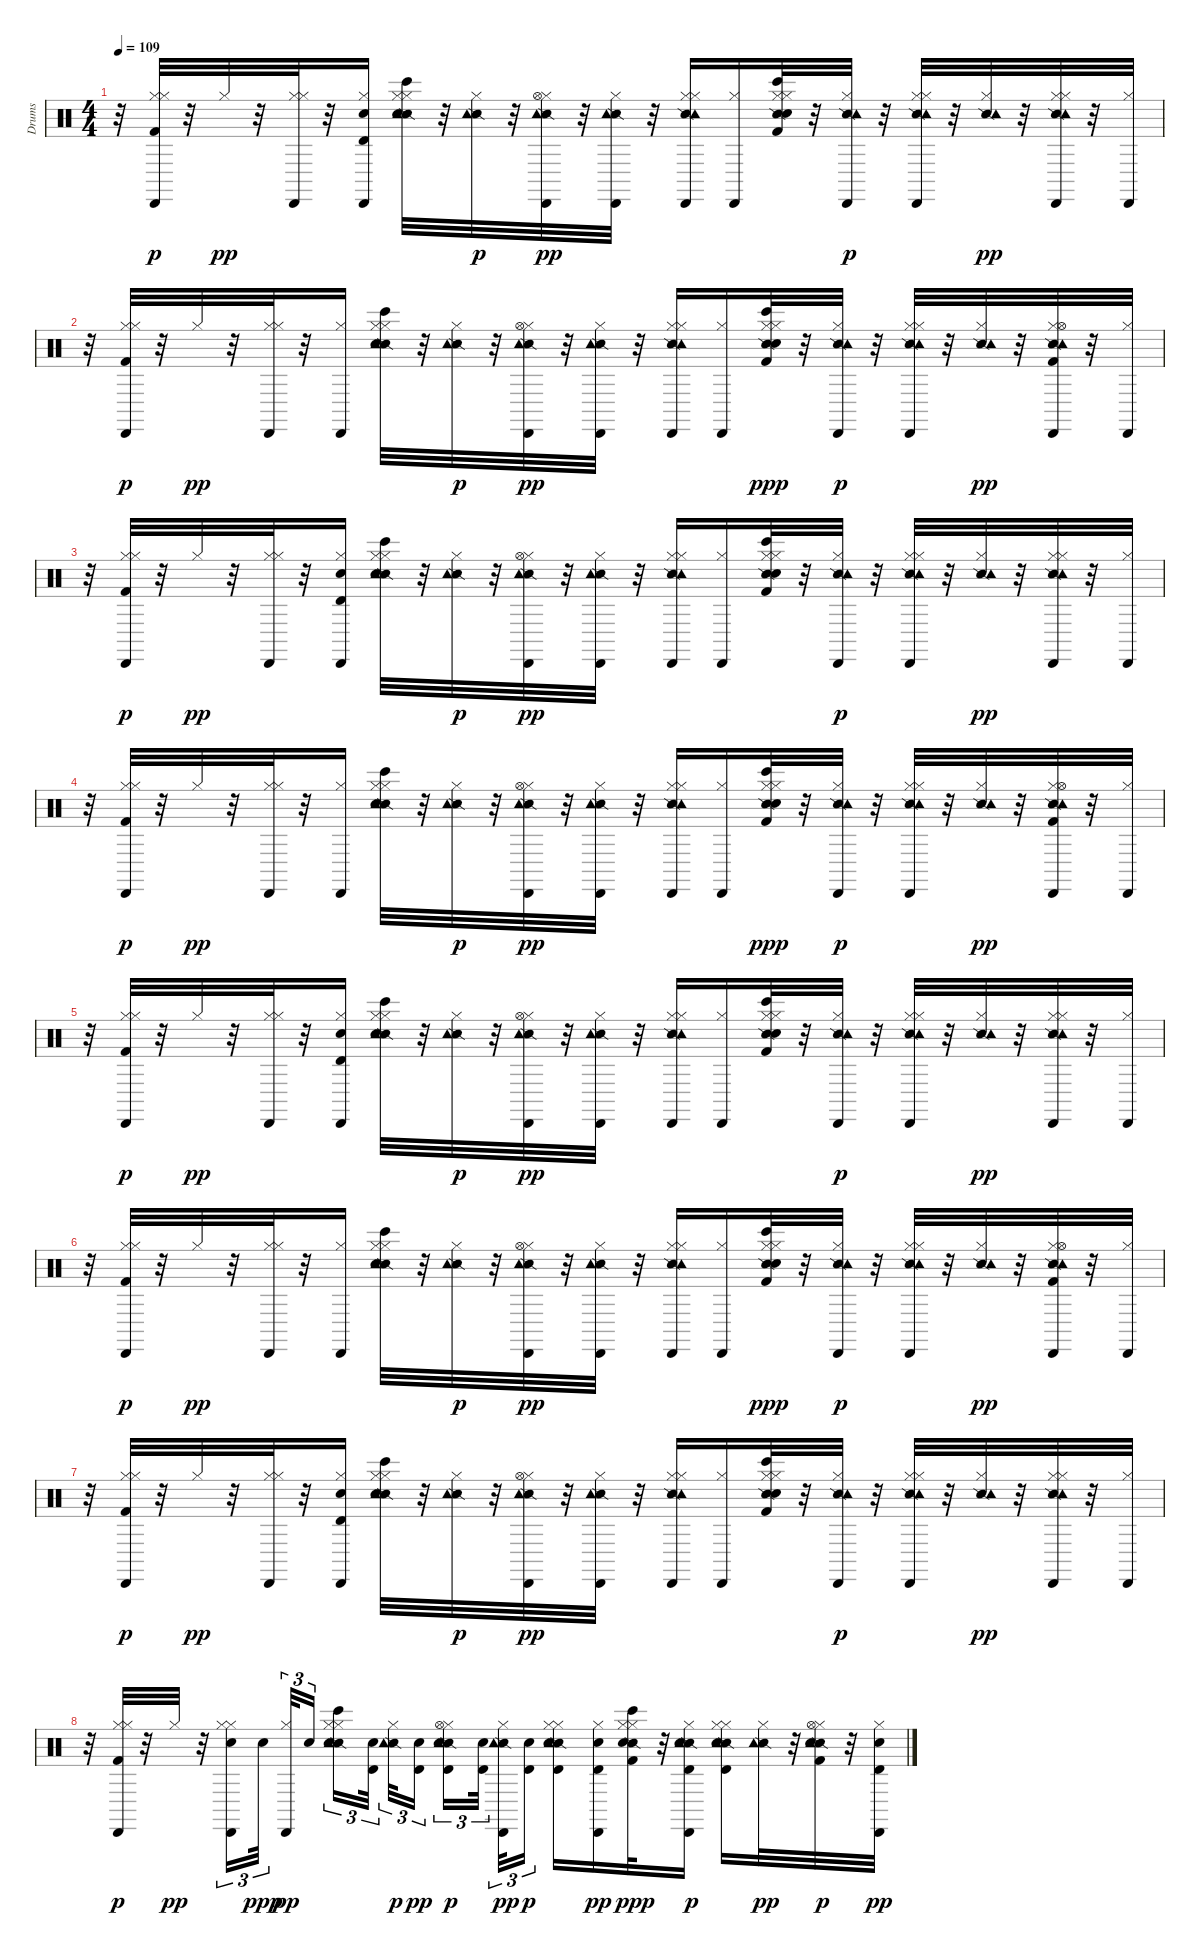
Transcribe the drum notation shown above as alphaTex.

\track ("Drums" "Drums") {instrument percussion}
\staff {score}
\articulation defaults
\ts (4 4)
\tempo 109
\clef neutral
\ks c
r.32{dy pp} ("Kick (hit) 2" "Hi-Hat (closed)" "Hi-Hat (closed)" "Cabasa (hit)").32{dy p} r.32 "Hi-Hat (closed)".32{dy pp} r.32 ("Hi-Hat (closed)" "Hi-Hat (closed)" "Cabasa (hit)").32 r.32 ("Hi-Hat (closed)" "Electric Snare (hit)" "Timbale high (hit)" "Cabasa (hit)").16 ("Hi-Hat (closed)" "Bongo High (hit)" "Snare (side stick) 2" "Electric Snare (hit)" "Hi-Hat (closed)" "Tambourine (hit)").32 r.32 ("Hi-Hat (closed)" "Snare (side stick) 2" "Tambourine (hit)").32{dy p} r.32 ("Hi-Hat (closed)" "Snare (side stick) 2" "Hi-Hat (open)" "Tambourine (hit)" "Cabasa (hit)").32{dy pp} r.32 ("Hi-Hat (closed)" "Snare (side stick) 2" "Tambourine (hit)" "Cabasa (hit)").32 r.32 ("Hi-Hat (closed)" "Snare (side stick) 2" "Hi-Hat (closed)" "Tambourine (hit)" "Cabasa (hit)").16 ("Hi-Hat (closed)" "Cabasa (hit)").16 ("Kick (hit) 2" "Hi-Hat (closed)" "Bongo High (hit)" "Snare (side stick) 2" "Electric Snare (hit)" "Hi-Hat (closed)").32 r.32 ("Hi-Hat (closed)" "Snare (side stick) 2" "Tambourine (hit)" "Cabasa (hit)").32{dy p} r.32 ("Hi-Hat (closed)" "Snare (side stick) 2" "Hi-Hat (closed)" "Tambourine (hit)" "Cabasa (hit)").32 r.32 ("Hi-Hat (closed)" "Snare (side stick) 2" "Tambourine (hit)").32{dy pp} r.32 ("Hi-Hat (closed)" "Snare (side stick) 2" "Hi-Hat (closed)" "Tambourine (hit)" "Cabasa (hit)").32 r.32 ("Hi-Hat (closed)" "Cabasa (hit)").32 |
r.32 ("Kick (hit) 2" "Hi-Hat (closed)" "Hi-Hat (closed)" "Cabasa (hit)").32{dy p} r.32 "Hi-Hat (closed)".32{dy pp} r.32 ("Hi-Hat (closed)" "Hi-Hat (closed)" "Cabasa (hit)").32 r.32 ("Hi-Hat (closed)" "Cabasa (hit)").16 ("Hi-Hat (closed)" "Bongo High (hit)" "Snare (side stick) 2" "Electric Snare (hit)" "Hi-Hat (closed)" "Tambourine (hit)").32 r.32 ("Hi-Hat (closed)" "Snare (side stick) 2" "Tambourine (hit)").32{dy p} r.32 ("Hi-Hat (closed)" "Snare (side stick) 2" "Hi-Hat (open)" "Tambourine (hit)" "Cabasa (hit)").32{dy pp} r.32 ("Hi-Hat (closed)" "Snare (side stick) 2" "Tambourine (hit)" "Cabasa (hit)").32 r.32 ("Hi-Hat (closed)" "Snare (side stick) 2" "Hi-Hat (closed)" "Tambourine (hit)" "Cabasa (hit)").16 ("Hi-Hat (closed)" "Cabasa (hit)").16 ("Kick (hit) 2" "Hi-Hat (closed)" "Bongo High (hit)" "Snare (side stick) 2" "Electric Snare (hit)" "Hi-Hat (closed)").32{dy ppp} r.32 ("Hi-Hat (closed)" "Snare (side stick) 2" "Tambourine (hit)" "Cabasa (hit)").32{dy p} r.32 ("Hi-Hat (closed)" "Snare (side stick) 2" "Hi-Hat (closed)" "Tambourine (hit)" "Cabasa (hit)").32 r.32 ("Hi-Hat (closed)" "Snare (side stick) 2" "Tambourine (hit)").32{dy pp} r.32 ("Kick (hit) 2" "Hi-Hat (closed)" "Snare (side stick) 2" "Hi-Hat (open)" "Tambourine (hit)" "Cabasa (hit)").32 r.32 ("Hi-Hat (closed)" "Cabasa (hit)").32 |
r.32 ("Kick (hit) 2" "Hi-Hat (closed)" "Hi-Hat (closed)" "Cabasa (hit)").32{dy p} r.32 "Hi-Hat (closed)".32{dy pp} r.32 ("Hi-Hat (closed)" "Hi-Hat (closed)" "Cabasa (hit)").32 r.32 ("Hi-Hat (closed)" "Electric Snare (hit)" "Timbale high (hit)" "Cabasa (hit)").16 ("Hi-Hat (closed)" "Bongo High (hit)" "Snare (side stick) 2" "Electric Snare (hit)" "Hi-Hat (closed)" "Tambourine (hit)").32 r.32 ("Hi-Hat (closed)" "Snare (side stick) 2" "Tambourine (hit)").32{dy p} r.32 ("Hi-Hat (closed)" "Snare (side stick) 2" "Hi-Hat (open)" "Tambourine (hit)" "Cabasa (hit)").32{dy pp} r.32 ("Hi-Hat (closed)" "Snare (side stick) 2" "Tambourine (hit)" "Cabasa (hit)").32 r.32 ("Hi-Hat (closed)" "Snare (side stick) 2" "Hi-Hat (closed)" "Tambourine (hit)" "Cabasa (hit)").16 ("Hi-Hat (closed)" "Cabasa (hit)").16 ("Kick (hit) 2" "Hi-Hat (closed)" "Bongo High (hit)" "Snare (side stick) 2" "Electric Snare (hit)" "Hi-Hat (closed)").32 r.32 ("Hi-Hat (closed)" "Snare (side stick) 2" "Tambourine (hit)" "Cabasa (hit)").32{dy p} r.32 ("Hi-Hat (closed)" "Snare (side stick) 2" "Hi-Hat (closed)" "Tambourine (hit)" "Cabasa (hit)").32 r.32 ("Hi-Hat (closed)" "Snare (side stick) 2" "Tambourine (hit)").32{dy pp} r.32 ("Hi-Hat (closed)" "Snare (side stick) 2" "Hi-Hat (closed)" "Tambourine (hit)" "Cabasa (hit)").32 r.32 ("Hi-Hat (closed)" "Cabasa (hit)").32 |
r.32 ("Kick (hit) 2" "Hi-Hat (closed)" "Hi-Hat (closed)" "Cabasa (hit)").32{dy p} r.32 "Hi-Hat (closed)".32{dy pp} r.32 ("Hi-Hat (closed)" "Hi-Hat (closed)" "Cabasa (hit)").32 r.32 ("Hi-Hat (closed)" "Cabasa (hit)").16 ("Hi-Hat (closed)" "Bongo High (hit)" "Snare (side stick) 2" "Electric Snare (hit)" "Hi-Hat (closed)" "Tambourine (hit)").32 r.32 ("Hi-Hat (closed)" "Snare (side stick) 2" "Tambourine (hit)").32{dy p} r.32 ("Hi-Hat (closed)" "Snare (side stick) 2" "Hi-Hat (open)" "Tambourine (hit)" "Cabasa (hit)").32{dy pp} r.32 ("Hi-Hat (closed)" "Snare (side stick) 2" "Tambourine (hit)" "Cabasa (hit)").32 r.32 ("Hi-Hat (closed)" "Snare (side stick) 2" "Hi-Hat (closed)" "Tambourine (hit)" "Cabasa (hit)").16 ("Hi-Hat (closed)" "Cabasa (hit)").16 ("Kick (hit) 2" "Hi-Hat (closed)" "Bongo High (hit)" "Snare (side stick) 2" "Electric Snare (hit)" "Hi-Hat (closed)").32{dy ppp} r.32 ("Hi-Hat (closed)" "Snare (side stick) 2" "Tambourine (hit)" "Cabasa (hit)").32{dy p} r.32 ("Hi-Hat (closed)" "Snare (side stick) 2" "Hi-Hat (closed)" "Tambourine (hit)" "Cabasa (hit)").32 r.32 ("Hi-Hat (closed)" "Snare (side stick) 2" "Tambourine (hit)").32{dy pp} r.32 ("Kick (hit) 2" "Hi-Hat (closed)" "Snare (side stick) 2" "Hi-Hat (open)" "Tambourine (hit)" "Cabasa (hit)").32 r.32 ("Hi-Hat (closed)" "Cabasa (hit)").32 |
r.32 ("Kick (hit) 2" "Hi-Hat (closed)" "Hi-Hat (closed)" "Cabasa (hit)").32{dy p} r.32 "Hi-Hat (closed)".32{dy pp} r.32 ("Hi-Hat (closed)" "Hi-Hat (closed)" "Cabasa (hit)").32 r.32 ("Hi-Hat (closed)" "Electric Snare (hit)" "Timbale high (hit)" "Cabasa (hit)").16 ("Hi-Hat (closed)" "Bongo High (hit)" "Snare (side stick) 2" "Electric Snare (hit)" "Hi-Hat (closed)" "Tambourine (hit)").32 r.32 ("Hi-Hat (closed)" "Snare (side stick) 2" "Tambourine (hit)").32{dy p} r.32 ("Hi-Hat (closed)" "Snare (side stick) 2" "Hi-Hat (open)" "Tambourine (hit)" "Cabasa (hit)").32{dy pp} r.32 ("Hi-Hat (closed)" "Snare (side stick) 2" "Tambourine (hit)" "Cabasa (hit)").32 r.32 ("Hi-Hat (closed)" "Snare (side stick) 2" "Hi-Hat (closed)" "Tambourine (hit)" "Cabasa (hit)").16 ("Hi-Hat (closed)" "Cabasa (hit)").16 ("Kick (hit) 2" "Hi-Hat (closed)" "Bongo High (hit)" "Snare (side stick) 2" "Electric Snare (hit)" "Hi-Hat (closed)").32 r.32 ("Hi-Hat (closed)" "Snare (side stick) 2" "Tambourine (hit)" "Cabasa (hit)").32{dy p} r.32 ("Hi-Hat (closed)" "Snare (side stick) 2" "Hi-Hat (closed)" "Tambourine (hit)" "Cabasa (hit)").32 r.32 ("Hi-Hat (closed)" "Snare (side stick) 2" "Tambourine (hit)").32{dy pp} r.32 ("Hi-Hat (closed)" "Snare (side stick) 2" "Hi-Hat (closed)" "Tambourine (hit)" "Cabasa (hit)").32 r.32 ("Hi-Hat (closed)" "Cabasa (hit)").32 |
r.32 ("Kick (hit) 2" "Hi-Hat (closed)" "Hi-Hat (closed)" "Cabasa (hit)").32{dy p} r.32 "Hi-Hat (closed)".32{dy pp} r.32 ("Hi-Hat (closed)" "Hi-Hat (closed)" "Cabasa (hit)").32 r.32 ("Hi-Hat (closed)" "Cabasa (hit)").16 ("Hi-Hat (closed)" "Bongo High (hit)" "Snare (side stick) 2" "Electric Snare (hit)" "Hi-Hat (closed)" "Tambourine (hit)").32 r.32 ("Hi-Hat (closed)" "Snare (side stick) 2" "Tambourine (hit)").32{dy p} r.32 ("Hi-Hat (closed)" "Snare (side stick) 2" "Hi-Hat (open)" "Tambourine (hit)" "Cabasa (hit)").32{dy pp} r.32 ("Hi-Hat (closed)" "Snare (side stick) 2" "Tambourine (hit)" "Cabasa (hit)").32 r.32 ("Hi-Hat (closed)" "Snare (side stick) 2" "Hi-Hat (closed)" "Tambourine (hit)" "Cabasa (hit)").16 ("Hi-Hat (closed)" "Cabasa (hit)").16 ("Kick (hit) 2" "Hi-Hat (closed)" "Bongo High (hit)" "Snare (side stick) 2" "Electric Snare (hit)" "Hi-Hat (closed)").32{dy ppp} r.32 ("Hi-Hat (closed)" "Snare (side stick) 2" "Tambourine (hit)" "Cabasa (hit)").32{dy p} r.32 ("Hi-Hat (closed)" "Snare (side stick) 2" "Hi-Hat (closed)" "Tambourine (hit)" "Cabasa (hit)").32 r.32 ("Hi-Hat (closed)" "Snare (side stick) 2" "Tambourine (hit)").32{dy pp} r.32 ("Kick (hit) 2" "Hi-Hat (closed)" "Snare (side stick) 2" "Hi-Hat (open)" "Tambourine (hit)" "Cabasa (hit)").32 r.32 ("Hi-Hat (closed)" "Cabasa (hit)").32 |
r.32 ("Kick (hit) 2" "Hi-Hat (closed)" "Hi-Hat (closed)" "Cabasa (hit)").32{dy p} r.32 "Hi-Hat (closed)".32{dy pp} r.32 ("Hi-Hat (closed)" "Hi-Hat (closed)" "Cabasa (hit)").32 r.32 ("Hi-Hat (closed)" "Electric Snare (hit)" "Timbale high (hit)" "Cabasa (hit)").16 ("Hi-Hat (closed)" "Bongo High (hit)" "Snare (side stick) 2" "Electric Snare (hit)" "Hi-Hat (closed)" "Tambourine (hit)").32 r.32 ("Hi-Hat (closed)" "Snare (side stick) 2" "Tambourine (hit)").32{dy p} r.32 ("Hi-Hat (closed)" "Snare (side stick) 2" "Hi-Hat (open)" "Tambourine (hit)" "Cabasa (hit)").32{dy pp} r.32 ("Hi-Hat (closed)" "Snare (side stick) 2" "Tambourine (hit)" "Cabasa (hit)").32 r.32 ("Hi-Hat (closed)" "Snare (side stick) 2" "Hi-Hat (closed)" "Tambourine (hit)" "Cabasa (hit)").16 ("Hi-Hat (closed)" "Cabasa (hit)").16 ("Kick (hit) 2" "Hi-Hat (closed)" "Bongo High (hit)" "Snare (side stick) 2" "Electric Snare (hit)" "Hi-Hat (closed)").32 r.32 ("Hi-Hat (closed)" "Snare (side stick) 2" "Tambourine (hit)" "Cabasa (hit)").32{dy p} r.32 ("Hi-Hat (closed)" "Snare (side stick) 2" "Hi-Hat (closed)" "Tambourine (hit)" "Cabasa (hit)").32 r.32 ("Hi-Hat (closed)" "Snare (side stick) 2" "Tambourine (hit)").32{dy pp} r.32 ("Hi-Hat (closed)" "Snare (side stick) 2" "Hi-Hat (closed)" "Tambourine (hit)" "Cabasa (hit)").32 r.32 ("Hi-Hat (closed)" "Cabasa (hit)").32 |
r.32 ("Kick (hit) 2" "Hi-Hat (closed)" "Hi-Hat (closed)" "Cabasa (hit)").32{dy p} r.32 "Hi-Hat (closed)".32{dy pp} r.32 ("Hi-Hat (closed)" "Electric Snare (hit)" "Hi-Hat (closed)" "Cabasa (hit)").16{tu (3 2)} "Electric Snare (hit)".32{tu (3 2) dy ppp beam splitsecondary} ("Hi-Hat (closed)" "Cabasa (hit)").32{tu (3 2) dy pp} "Electric Snare (hit)".16{tu (3 2)} ("Hi-Hat (closed)" "Bongo High (hit)" "Snare (side stick) 2" "Electric Snare (hit)" "Hi-Hat (closed)" "Tambourine (hit)").16{tu (3 2)} ("Electric Snare (hit)" "Timbale high (hit)").32{tu (3 2) beam splitsecondary} ("Hi-Hat (closed)" "Snare (side stick) 2" "Tambourine (hit)").32{tu (3 2) dy p} ("Electric Snare (hit)" "Timbale high (hit)").16{tu (3 2) dy pp beam splitsecondary} ("Hi-Hat (closed)" "Snare (side stick) 2" "Electric Snare (hit)" "Hi-Hat (open)" "Tambourine (hit)" "Timbale high (hit)").16{tu (3 2) dy p} ("Electric Snare (hit)" "Timbale high (hit)").32{tu (3 2) beam splitsecondary} ("Hi-Hat (closed)" "Snare (side stick) 2" "Tambourine (hit)" "Cabasa (hit)").32{tu (3 2) dy pp} ("Electric Snare (hit)" "Timbale high (hit)").16{tu (3 2) dy p} ("Hi-Hat (closed)" "Snare (side stick) 2" "Electric Snare (hit)" "Hi-Hat (closed)" "Tambourine (hit)" "Timbale high (hit)").16 ("Hi-Hat (closed)" "Electric Snare (hit)" "Timbale high (hit)" "Cabasa (hit)").16{dy pp} ("Kick (hit) 2" "Hi-Hat (closed)" "Bongo High (hit)" "Snare (side stick) 2" "Electric Snare (hit)" "Hi-Hat (closed)").32{dy ppp} r.32 ("Hi-Hat (closed)" "Snare (side stick) 2" "Electric Snare (hit)" "Tambourine (hit)" "Timbale high (hit)" "Cabasa (hit)").16{dy p} ("Hi-Hat (closed)" "Snare (side stick) 2" "Electric Snare (hit)" "Hi-Hat (closed)" "Tambourine (hit)" "Timbale high (hit)").16 ("Hi-Hat (closed)" "Snare (side stick) 2" "Tambourine (hit)").32{dy pp} r.32 ("Kick (hit) 2" "Hi-Hat (closed)" "Snare (side stick) 2" "Electric Snare (hit)" "Hi-Hat (open)" "Tambourine (hit)").32{dy p} r.32 ("Hi-Hat (closed)" "Electric Snare (hit)" "Timbale high (hit)" "Cabasa (hit)").32{dy pp}
